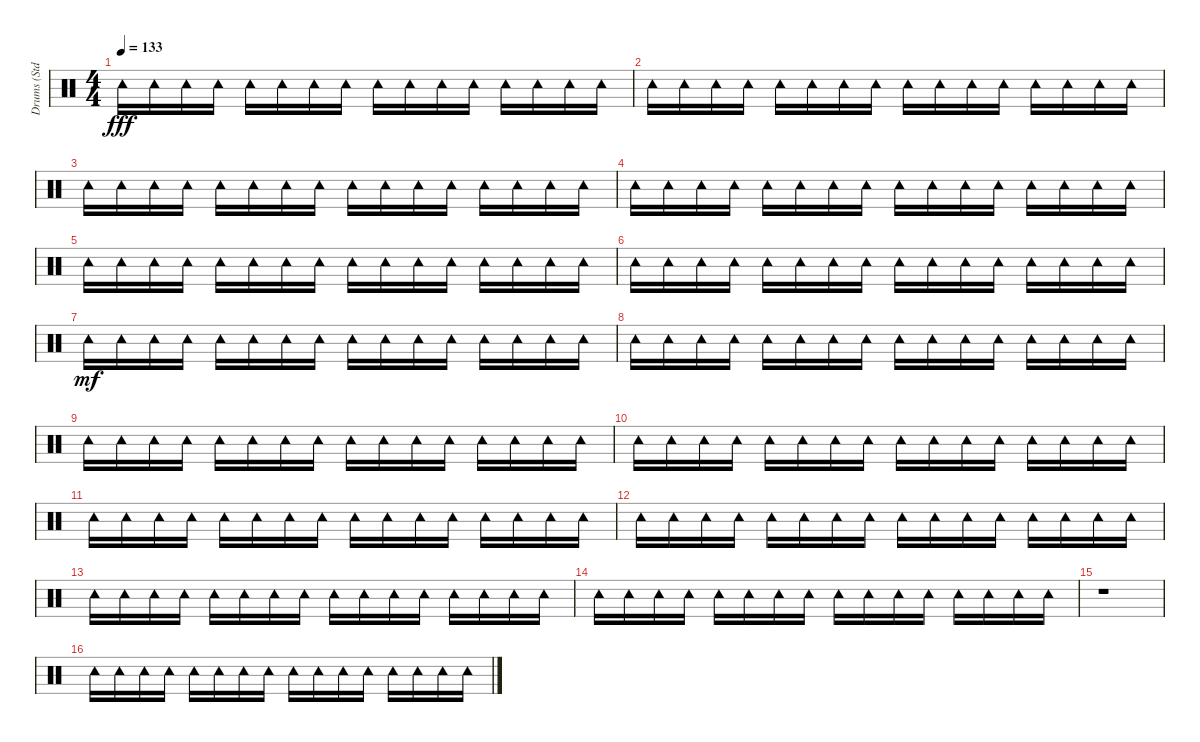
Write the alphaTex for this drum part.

\track ("Drums (Std.)" "Drums (Std") {instrument percussion}
\staff {score}
\articulation defaults
\ts (4 4)
\tempo 133
\clef neutral
\ks c "Tambourine (hit)".16{dy fff} "Tambourine (hit)".16 "Tambourine (hit)".16 "Tambourine (hit)".16 "Tambourine (hit)".16 "Tambourine (hit)".16 "Tambourine (hit)".16 "Tambourine (hit)".16 "Tambourine (hit)".16 "Tambourine (hit)".16 "Tambourine (hit)".16 "Tambourine (hit)".16 "Tambourine (hit)".16 "Tambourine (hit)".16 "Tambourine (hit)".16 "Tambourine (hit)".16
|
"Tambourine (hit)".16 "Tambourine (hit)".16 "Tambourine (hit)".16 "Tambourine (hit)".16 "Tambourine (hit)".16 "Tambourine (hit)".16 "Tambourine (hit)".16 "Tambourine (hit)".16 "Tambourine (hit)".16 "Tambourine (hit)".16 "Tambourine (hit)".16 "Tambourine (hit)".16 "Tambourine (hit)".16 "Tambourine (hit)".16 "Tambourine (hit)".16 "Tambourine (hit)".16 |
"Tambourine (hit)".16 "Tambourine (hit)".16 "Tambourine (hit)".16 "Tambourine (hit)".16 "Tambourine (hit)".16 "Tambourine (hit)".16 "Tambourine (hit)".16 "Tambourine (hit)".16 "Tambourine (hit)".16 "Tambourine (hit)".16 "Tambourine (hit)".16 "Tambourine (hit)".16 "Tambourine (hit)".16 "Tambourine (hit)".16 "Tambourine (hit)".16 "Tambourine (hit)".16 |
"Tambourine (hit)".16 "Tambourine (hit)".16 "Tambourine (hit)".16 "Tambourine (hit)".16 "Tambourine (hit)".16 "Tambourine (hit)".16 "Tambourine (hit)".16 "Tambourine (hit)".16 "Tambourine (hit)".16 "Tambourine (hit)".16 "Tambourine (hit)".16 "Tambourine (hit)".16 "Tambourine (hit)".16 "Tambourine (hit)".16 "Tambourine (hit)".16 "Tambourine (hit)".16 |
"Tambourine (hit)".16 "Tambourine (hit)".16 "Tambourine (hit)".16 "Tambourine (hit)".16 "Tambourine (hit)".16 "Tambourine (hit)".16 "Tambourine (hit)".16 "Tambourine (hit)".16 "Tambourine (hit)".16 "Tambourine (hit)".16 "Tambourine (hit)".16 "Tambourine (hit)".16 "Tambourine (hit)".16 "Tambourine (hit)".16 "Tambourine (hit)".16 "Tambourine (hit)".16 |
"Tambourine (hit)".16 "Tambourine (hit)".16 "Tambourine (hit)".16 "Tambourine (hit)".16 "Tambourine (hit)".16 "Tambourine (hit)".16 "Tambourine (hit)".16 "Tambourine (hit)".16 "Tambourine (hit)".16 "Tambourine (hit)".16 "Tambourine (hit)".16 "Tambourine (hit)".16 "Tambourine (hit)".16 "Tambourine (hit)".16 "Tambourine (hit)".16 "Tambourine (hit)".16 |
"Tambourine (hit)".16{dy mf} "Tambourine (hit)".16 "Tambourine (hit)".16 "Tambourine (hit)".16 "Tambourine (hit)".16 "Tambourine (hit)".16 "Tambourine (hit)".16 "Tambourine (hit)".16 "Tambourine (hit)".16 "Tambourine (hit)".16 "Tambourine (hit)".16 "Tambourine (hit)".16 "Tambourine (hit)".16 "Tambourine (hit)".16 "Tambourine (hit)".16 "Tambourine (hit)".16 |
"Tambourine (hit)".16 "Tambourine (hit)".16 "Tambourine (hit)".16 "Tambourine (hit)".16 "Tambourine (hit)".16 "Tambourine (hit)".16 "Tambourine (hit)".16 "Tambourine (hit)".16 "Tambourine (hit)".16 "Tambourine (hit)".16 "Tambourine (hit)".16 "Tambourine (hit)".16 "Tambourine (hit)".16 "Tambourine (hit)".16 "Tambourine (hit)".16 "Tambourine (hit)".16 |
"Tambourine (hit)".16 "Tambourine (hit)".16 "Tambourine (hit)".16 "Tambourine (hit)".16 "Tambourine (hit)".16 "Tambourine (hit)".16 "Tambourine (hit)".16 "Tambourine (hit)".16 "Tambourine (hit)".16 "Tambourine (hit)".16 "Tambourine (hit)".16 "Tambourine (hit)".16 "Tambourine (hit)".16 "Tambourine (hit)".16 "Tambourine (hit)".16 "Tambourine (hit)".16 |
"Tambourine (hit)".16 "Tambourine (hit)".16 "Tambourine (hit)".16 "Tambourine (hit)".16 "Tambourine (hit)".16 "Tambourine (hit)".16 "Tambourine (hit)".16 "Tambourine (hit)".16 "Tambourine (hit)".16 "Tambourine (hit)".16 "Tambourine (hit)".16 "Tambourine (hit)".16 "Tambourine (hit)".16 "Tambourine (hit)".16 "Tambourine (hit)".16 "Tambourine (hit)".16 |
"Tambourine (hit)".16 "Tambourine (hit)".16 "Tambourine (hit)".16 "Tambourine (hit)".16 "Tambourine (hit)".16 "Tambourine (hit)".16 "Tambourine (hit)".16 "Tambourine (hit)".16 "Tambourine (hit)".16 "Tambourine (hit)".16 "Tambourine (hit)".16 "Tambourine (hit)".16 "Tambourine (hit)".16 "Tambourine (hit)".16 "Tambourine (hit)".16 "Tambourine (hit)".16 |
"Tambourine (hit)".16 "Tambourine (hit)".16 "Tambourine (hit)".16 "Tambourine (hit)".16 "Tambourine (hit)".16 "Tambourine (hit)".16 "Tambourine (hit)".16 "Tambourine (hit)".16 "Tambourine (hit)".16 "Tambourine (hit)".16 "Tambourine (hit)".16 "Tambourine (hit)".16 "Tambourine (hit)".16 "Tambourine (hit)".16 "Tambourine (hit)".16 "Tambourine (hit)".16 |
"Tambourine (hit)".16 "Tambourine (hit)".16 "Tambourine (hit)".16 "Tambourine (hit)".16 "Tambourine (hit)".16 "Tambourine (hit)".16 "Tambourine (hit)".16 "Tambourine (hit)".16 "Tambourine (hit)".16 "Tambourine (hit)".16 "Tambourine (hit)".16 "Tambourine (hit)".16 "Tambourine (hit)".16 "Tambourine (hit)".16 "Tambourine (hit)".16 "Tambourine (hit)".16 |
"Tambourine (hit)".16 "Tambourine (hit)".16 "Tambourine (hit)".16 "Tambourine (hit)".16 "Tambourine (hit)".16 "Tambourine (hit)".16 "Tambourine (hit)".16 "Tambourine (hit)".16 "Tambourine (hit)".16 "Tambourine (hit)".16 "Tambourine (hit)".16 "Tambourine (hit)".16 "Tambourine (hit)".16 "Tambourine (hit)".16 "Tambourine (hit)".16 "Tambourine (hit)".16 |
r.1 |
"Tambourine (hit)".16 "Tambourine (hit)".16 "Tambourine (hit)".16 "Tambourine (hit)".16 "Tambourine (hit)".16 "Tambourine (hit)".16 "Tambourine (hit)".16 "Tambourine (hit)".16 "Tambourine (hit)".16 "Tambourine (hit)".16 "Tambourine (hit)".16 "Tambourine (hit)".16 "Tambourine (hit)".16 "Tambourine (hit)".16 "Tambourine (hit)".16 "Tambourine (hit)".16
